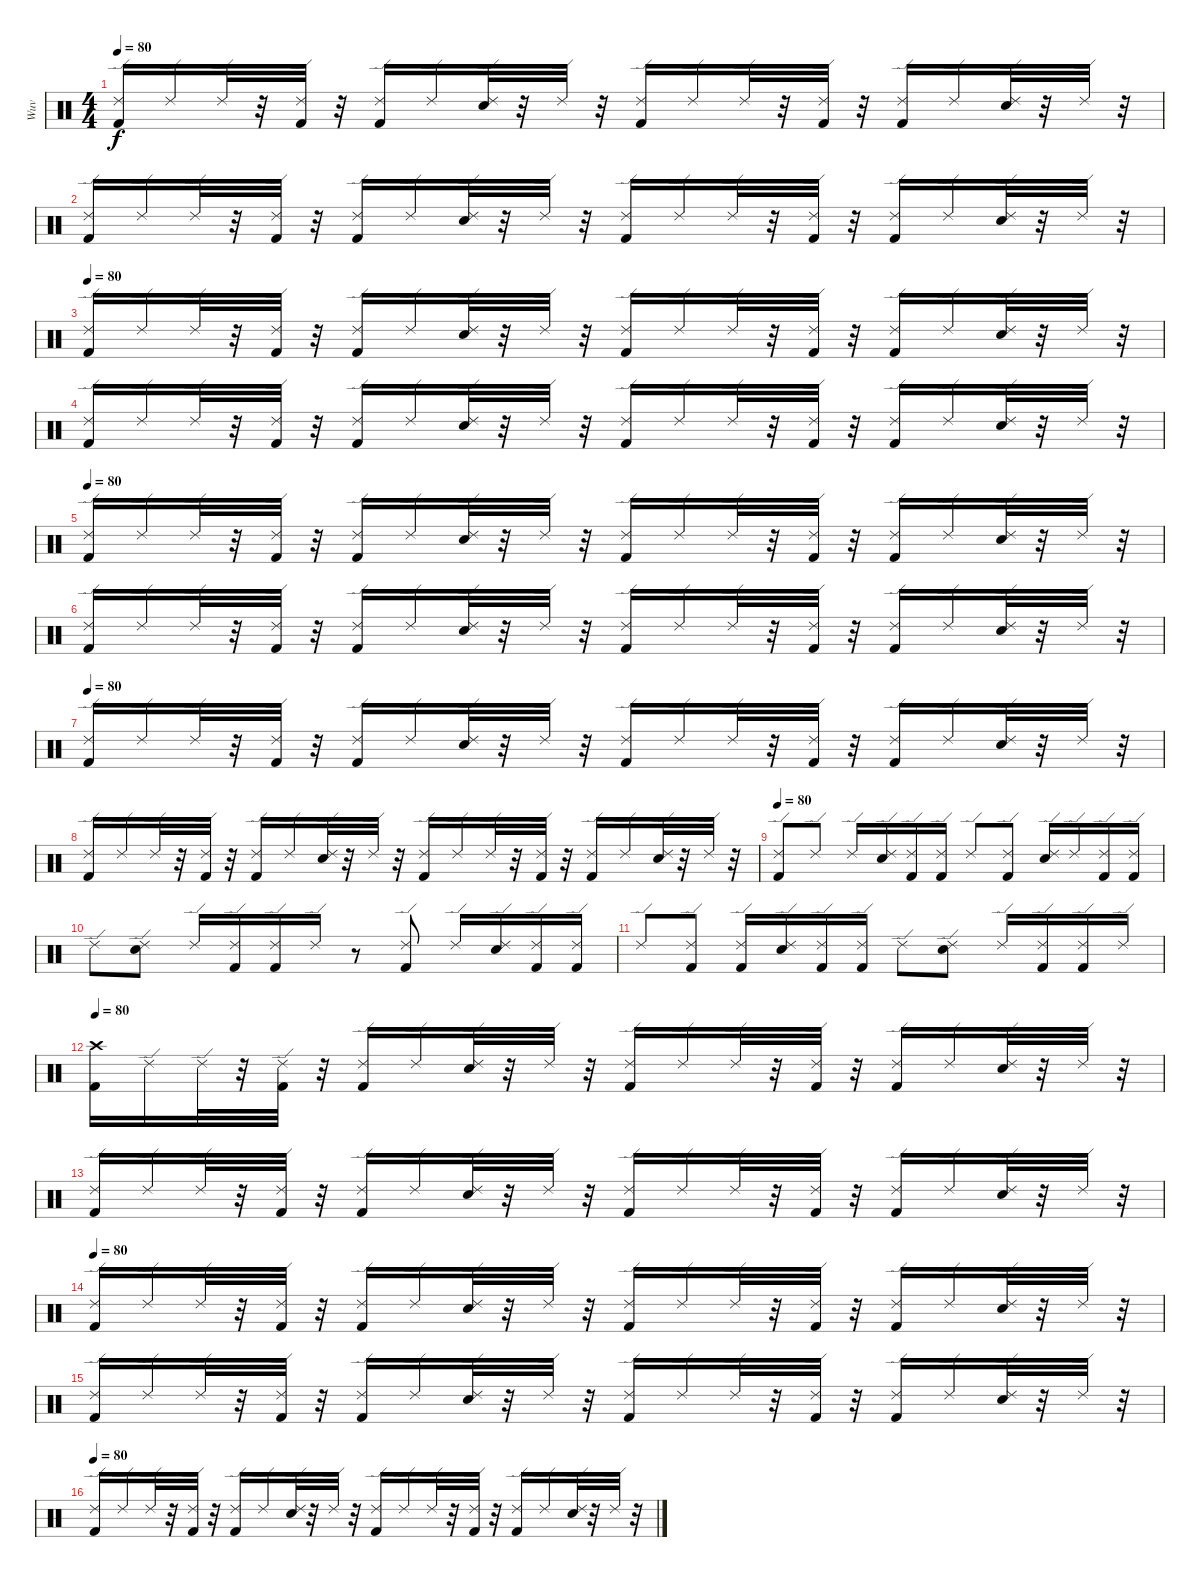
\track ("Wuv" "Wuv") {instrument percussion}
\staff {score}
\articulation defaults
\ts (4 4)
\tempo 80
\clef neutral
\ks c
("Ride (edge) 2" "Kick (hit) 2").16{dy f} "Ride (edge) 2".16 "Ride (edge) 2".32 r.32 ("Ride (edge) 2" "Kick (hit) 2").32 r.32 ("Ride (edge) 2" "Kick (hit) 2").16 "Ride (edge) 2".16 ("Ride (edge) 2" "Snare (hit) 2").32 r.32 "Ride (edge) 2".32 r.32 ("Ride (edge) 2" "Kick (hit) 2").16 "Ride (edge) 2".16 "Ride (edge) 2".32 r.32 ("Ride (edge) 2" "Kick (hit) 2").32 r.32 ("Ride (edge) 2" "Kick (hit) 2").16 "Ride (edge) 2".16 ("Ride (edge) 2" "Snare (hit) 2").32 r.32 "Ride (edge) 2".32 r.32 |
("Ride (edge) 2" "Kick (hit) 2").16 "Ride (edge) 2".16 "Ride (edge) 2".32 r.32 ("Ride (edge) 2" "Kick (hit) 2").32 r.32 ("Ride (edge) 2" "Kick (hit) 2").16 "Ride (edge) 2".16 ("Ride (edge) 2" "Snare (hit) 2").32 r.32 "Ride (edge) 2".32 r.32 ("Ride (edge) 2" "Kick (hit) 2").16 "Ride (edge) 2".16 "Ride (edge) 2".32 r.32 ("Ride (edge) 2" "Kick (hit) 2").32 r.32 ("Ride (edge) 2" "Kick (hit) 2").16 "Ride (edge) 2".16 ("Ride (edge) 2" "Snare (hit) 2").32 r.32 "Ride (edge) 2".32 r.32 |
\tempo 80
("Ride (edge) 2" "Kick (hit) 2").16 "Ride (edge) 2".16 "Ride (edge) 2".32 r.32 ("Ride (edge) 2" "Kick (hit) 2").32 r.32 ("Ride (edge) 2" "Kick (hit) 2").16 "Ride (edge) 2".16 ("Ride (edge) 2" "Snare (hit) 2").32 r.32 "Ride (edge) 2".32 r.32 ("Ride (edge) 2" "Kick (hit) 2").16 "Ride (edge) 2".16 "Ride (edge) 2".32 r.32 ("Ride (edge) 2" "Kick (hit) 2").32 r.32 ("Ride (edge) 2" "Kick (hit) 2").16 "Ride (edge) 2".16 ("Ride (edge) 2" "Snare (hit) 2").32 r.32 "Ride (edge) 2".32 r.32 |
("Ride (edge) 2" "Kick (hit) 2").16 "Ride (edge) 2".16 "Ride (edge) 2".32 r.32 ("Ride (edge) 2" "Kick (hit) 2").32 r.32 ("Ride (edge) 2" "Kick (hit) 2").16 "Ride (edge) 2".16 ("Ride (edge) 2" "Snare (hit) 2").32 r.32 "Ride (edge) 2".32 r.32 ("Ride (edge) 2" "Kick (hit) 2").16 "Ride (edge) 2".16 "Ride (edge) 2".32 r.32 ("Ride (edge) 2" "Kick (hit) 2").32 r.32 ("Ride (edge) 2" "Kick (hit) 2").16 "Ride (edge) 2".16 ("Ride (edge) 2" "Snare (hit) 2").32 r.32 "Ride (edge) 2".32 r.32 |
\tempo 80
("Ride (edge) 2" "Kick (hit) 2").16 "Ride (edge) 2".16 "Ride (edge) 2".32 r.32 ("Ride (edge) 2" "Kick (hit) 2").32 r.32 ("Ride (edge) 2" "Kick (hit) 2").16 "Ride (edge) 2".16 ("Ride (edge) 2" "Snare (hit) 2").32 r.32 "Ride (edge) 2".32 r.32 ("Ride (edge) 2" "Kick (hit) 2").16 "Ride (edge) 2".16 "Ride (edge) 2".32 r.32 ("Ride (edge) 2" "Kick (hit) 2").32 r.32 ("Ride (edge) 2" "Kick (hit) 2").16 "Ride (edge) 2".16 ("Ride (edge) 2" "Snare (hit) 2").32 r.32 "Ride (edge) 2".32 r.32 |
("Ride (edge) 2" "Kick (hit) 2").16 "Ride (edge) 2".16 "Ride (edge) 2".32 r.32 ("Ride (edge) 2" "Kick (hit) 2").32 r.32 ("Ride (edge) 2" "Kick (hit) 2").16 "Ride (edge) 2".16 ("Ride (edge) 2" "Snare (hit) 2").32 r.32 "Ride (edge) 2".32 r.32 ("Ride (edge) 2" "Kick (hit) 2").16 "Ride (edge) 2".16 "Ride (edge) 2".32 r.32 ("Ride (edge) 2" "Kick (hit) 2").32 r.32 ("Ride (edge) 2" "Kick (hit) 2").16 "Ride (edge) 2".16 ("Ride (edge) 2" "Snare (hit) 2").32 r.32 "Ride (edge) 2".32 r.32 |
\tempo 80
("Ride (edge) 2" "Kick (hit) 2").16 "Ride (edge) 2".16 "Ride (edge) 2".32 r.32 ("Ride (edge) 2" "Kick (hit) 2").32 r.32 ("Ride (edge) 2" "Kick (hit) 2").16 "Ride (edge) 2".16 ("Ride (edge) 2" "Snare (hit) 2").32 r.32 "Ride (edge) 2".32 r.32 ("Ride (edge) 2" "Kick (hit) 2").16 "Ride (edge) 2".16 "Ride (edge) 2".32 r.32 ("Ride (edge) 2" "Kick (hit) 2").32 r.32 ("Ride (edge) 2" "Kick (hit) 2").16 "Ride (edge) 2".16 ("Ride (edge) 2" "Snare (hit) 2").32 r.32 "Ride (edge) 2".32 r.32 |
("Ride (edge) 2" "Kick (hit) 2").16 "Ride (edge) 2".16 "Ride (edge) 2".32 r.32 ("Ride (edge) 2" "Kick (hit) 2").32 r.32 ("Ride (edge) 2" "Kick (hit) 2").16 "Ride (edge) 2".16 ("Ride (edge) 2" "Snare (hit) 2").32 r.32 "Ride (edge) 2".32 r.32 ("Ride (edge) 2" "Kick (hit) 2").16 "Ride (edge) 2".16 "Ride (edge) 2".32 r.32 ("Ride (edge) 2" "Kick (hit) 2").32 r.32 ("Ride (edge) 2" "Kick (hit) 2").16 "Ride (edge) 2".16 ("Ride (edge) 2" "Snare (hit) 2").32 r.32 "Ride (edge) 2".32 r.32 |
\tempo 80
("Ride (edge) 2" "Kick (hit) 2").8 "Ride (edge) 2".8 "Ride (edge) 2".16 ("Ride (edge) 2" "Snare (hit) 2").16 ("Ride (edge) 2" "Kick (hit) 2").16 ("Ride (edge) 2" "Kick (hit) 2").16 "Ride (edge) 2".8 ("Ride (edge) 2" "Kick (hit) 2").8 ("Ride (edge) 2" "Snare (hit) 2").16 "Ride (edge) 2".16 ("Ride (edge) 2" "Kick (hit) 2").16 ("Ride (edge) 2" "Kick (hit) 2").16 |
"Ride (edge) 2".8 ("Ride (edge) 2" "Snare (hit) 2").8 "Ride (edge) 2".16 ("Ride (edge) 2" "Kick (hit) 2").16 ("Ride (edge) 2" "Kick (hit) 2").16 "Ride (edge) 2".16 r.8 ("Ride (edge) 2" "Kick (hit) 2").8 "Ride (edge) 2".16 ("Ride (edge) 2" "Snare (hit) 2").16 ("Ride (edge) 2" "Kick (hit) 2").16 ("Ride (edge) 2" "Kick (hit) 2").16 |
"Ride (edge) 2".8 ("Ride (edge) 2" "Kick (hit) 2").8 ("Ride (edge) 2" "Kick (hit) 2").16 ("Ride (edge) 2" "Snare (hit) 2").16 ("Ride (edge) 2" "Kick (hit) 2").16 ("Ride (edge) 2" "Kick (hit) 2").16 "Ride (edge) 2".8 ("Ride (edge) 2" "Snare (hit) 2").8 "Ride (edge) 2".16 ("Ride (edge) 2" "Kick (hit) 2").16 ("Ride (edge) 2" "Kick (hit) 2").16 "Ride (edge) 2".16 |
\tempo 80
("Crash high (hit)" "Kick (hit) 2").16 "Ride (edge) 2".16 "Ride (edge) 2".32 r.32 ("Ride (edge) 2" "Kick (hit) 2").32 r.32 ("Ride (edge) 2" "Kick (hit) 2").16 "Ride (edge) 2".16 ("Ride (edge) 2" "Snare (hit) 2").32 r.32 "Ride (edge) 2".32 r.32 ("Ride (edge) 2" "Kick (hit) 2").16 "Ride (edge) 2".16 "Ride (edge) 2".32 r.32 ("Ride (edge) 2" "Kick (hit) 2").32 r.32 ("Ride (edge) 2" "Kick (hit) 2").16 "Ride (edge) 2".16 ("Ride (edge) 2" "Snare (hit) 2").32 r.32 "Ride (edge) 2".32 r.32 |
("Ride (edge) 2" "Kick (hit) 2").16 "Ride (edge) 2".16 "Ride (edge) 2".32 r.32 ("Ride (edge) 2" "Kick (hit) 2").32 r.32 ("Ride (edge) 2" "Kick (hit) 2").16 "Ride (edge) 2".16 ("Ride (edge) 2" "Snare (hit) 2").32 r.32 "Ride (edge) 2".32 r.32 ("Ride (edge) 2" "Kick (hit) 2").16 "Ride (edge) 2".16 "Ride (edge) 2".32 r.32 ("Ride (edge) 2" "Kick (hit) 2").32 r.32 ("Ride (edge) 2" "Kick (hit) 2").16 "Ride (edge) 2".16 ("Ride (edge) 2" "Snare (hit) 2").32 r.32 "Ride (edge) 2".32 r.32 |
\tempo 80
("Ride (edge) 2" "Kick (hit) 2").16 "Ride (edge) 2".16 "Ride (edge) 2".32 r.32 ("Ride (edge) 2" "Kick (hit) 2").32 r.32 ("Ride (edge) 2" "Kick (hit) 2").16 "Ride (edge) 2".16 ("Ride (edge) 2" "Snare (hit) 2").32 r.32 "Ride (edge) 2".32 r.32 ("Ride (edge) 2" "Kick (hit) 2").16 "Ride (edge) 2".16 "Ride (edge) 2".32 r.32 ("Ride (edge) 2" "Kick (hit) 2").32 r.32 ("Ride (edge) 2" "Kick (hit) 2").16 "Ride (edge) 2".16 ("Ride (edge) 2" "Snare (hit) 2").32 r.32 "Ride (edge) 2".32 r.32 |
("Ride (edge) 2" "Kick (hit) 2").16 "Ride (edge) 2".16 "Ride (edge) 2".32 r.32 ("Ride (edge) 2" "Kick (hit) 2").32 r.32 ("Ride (edge) 2" "Kick (hit) 2").16 "Ride (edge) 2".16 ("Ride (edge) 2" "Snare (hit) 2").32 r.32 "Ride (edge) 2".32 r.32 ("Ride (edge) 2" "Kick (hit) 2").16 "Ride (edge) 2".16 "Ride (edge) 2".32 r.32 ("Ride (edge) 2" "Kick (hit) 2").32 r.32 ("Ride (edge) 2" "Kick (hit) 2").16 "Ride (edge) 2".16 ("Ride (edge) 2" "Snare (hit) 2").32 r.32 "Ride (edge) 2".32 r.32 |
\tempo 80
("Ride (edge) 2" "Kick (hit) 2").16 "Ride (edge) 2".16 "Ride (edge) 2".32 r.32 ("Ride (edge) 2" "Kick (hit) 2").32 r.32 ("Ride (edge) 2" "Kick (hit) 2").16 "Ride (edge) 2".16 ("Ride (edge) 2" "Snare (hit) 2").32 r.32 "Ride (edge) 2".32 r.32 ("Ride (edge) 2" "Kick (hit) 2").16 "Ride (edge) 2".16 "Ride (edge) 2".32 r.32 ("Ride (edge) 2" "Kick (hit) 2").32 r.32 ("Ride (edge) 2" "Kick (hit) 2").16 "Ride (edge) 2".16 ("Ride (edge) 2" "Snare (hit) 2").32 r.32 "Ride (edge) 2".32 r.32
